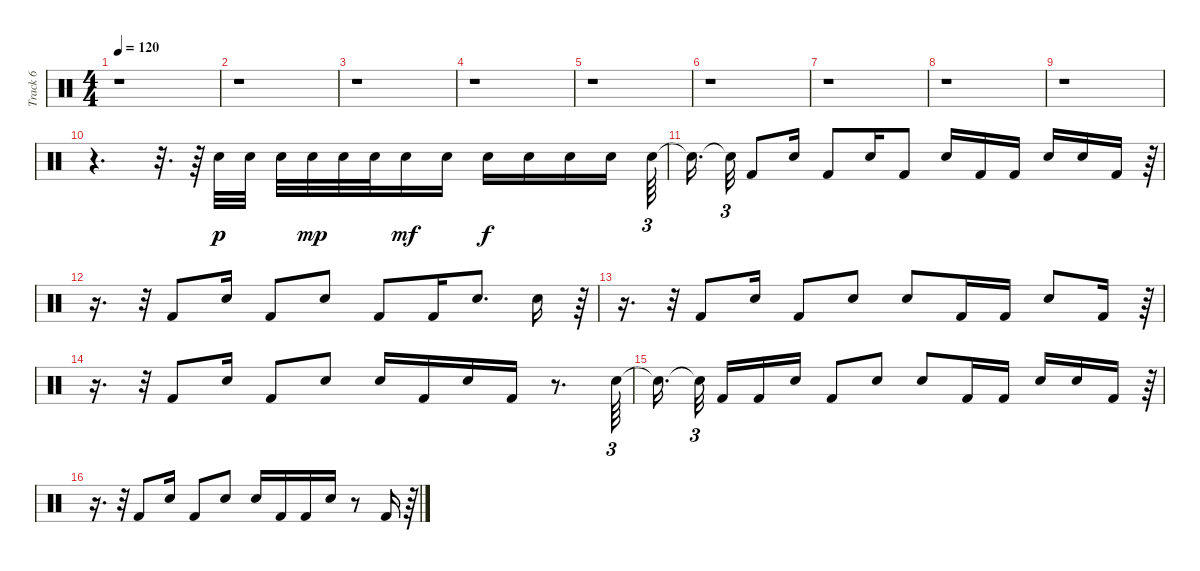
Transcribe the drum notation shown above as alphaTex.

\track ("Track 6" "Track 6") {instrument percussion}
\staff {score}
\articulation defaults
\ts (4 4)
\tempo 120
\clef neutral
\ks c
r.1{dy f} |
r.1 |
r.1 |
r.1 |
r.1 |
r.1 |
r.1 |
r.1 |
r.1 |
r.4{d} r.32{d} r.64 "Electric Snare (hit)".32{dy p} "Electric Snare (hit)".32 "Electric Snare (hit)".32 "Electric Snare (hit)".32{dy mp} "Electric Snare (hit)".32 "Electric Snare (hit)".32 "Electric Snare (hit)".16{dy mf} "Electric Snare (hit)".16 "Electric Snare (hit)".16{dy f} "Electric Snare (hit)".16 "Electric Snare (hit)".16 "Electric Snare (hit)".16 "Electric Snare (hit)".64{tu (3 2)} |
"Snare (hit)"{t}.16{d beam splitsecondary} "Snare (hit)"{t}.32{tu (3 2)} "Kick (hit) 2".8 "Electric Snare (hit)".16 "Kick (hit) 2".8 "Electric Snare (hit)".16 "Kick (hit) 2".8 "Electric Snare (hit)".16 "Kick (hit) 2".16 "Kick (hit) 2".16 "Electric Snare (hit)".16 "Electric Snare (hit)".16 "Kick (hit) 2".16 r.64{tu (3 2)} |
r.16{d} r.32{tu (3 2)} "Kick (hit) 2".8 "Electric Snare (hit)".16 "Kick (hit) 2".8 "Electric Snare (hit)".8 "Kick (hit) 2".8 "Kick (hit) 2".16 "Electric Snare (hit)".8{d} "Electric Snare (hit)".16 r.64{tu (3 2)} |
r.16{d} r.32{tu (3 2)} "Kick (hit) 2".8 "Electric Snare (hit)".16 "Kick (hit) 2".8 "Electric Snare (hit)".8 "Electric Snare (hit)".8 "Kick (hit) 2".16 "Kick (hit) 2".16 "Electric Snare (hit)".8 "Kick (hit) 2".16 r.64{tu (3 2)} |
r.16{d} r.32{tu (3 2)} "Kick (hit) 2".8 "Electric Snare (hit)".16 "Kick (hit) 2".8 "Electric Snare (hit)".8 "Electric Snare (hit)".16 "Kick (hit) 2".16 "Electric Snare (hit)".16 "Kick (hit) 2".16 r.8{d} "Electric Snare (hit)".64{tu (3 2)} |
"Snare (hit)"{t}.16{d beam splitsecondary} "Snare (hit)"{t}.32{tu (3 2) beam splitsecondary} "Kick (hit) 2".16 "Kick (hit) 2".16 "Electric Snare (hit)".16 "Kick (hit) 2".8 "Electric Snare (hit)".8 "Electric Snare (hit)".8 "Kick (hit) 2".16 "Kick (hit) 2".16 "Electric Snare (hit)".16 "Electric Snare (hit)".16 "Kick (hit) 2".16 r.64{tu (3 2)} |
r.16{d} r.32{tu (3 2)} "Kick (hit) 2".8 "Electric Snare (hit)".16 "Kick (hit) 2".8 "Electric Snare (hit)".8 "Electric Snare (hit)".16 "Kick (hit) 2".16 "Kick (hit) 2".16 "Electric Snare (hit)".16 r.8 "Kick (hit) 2".16 r.64{tu (3 2)}
